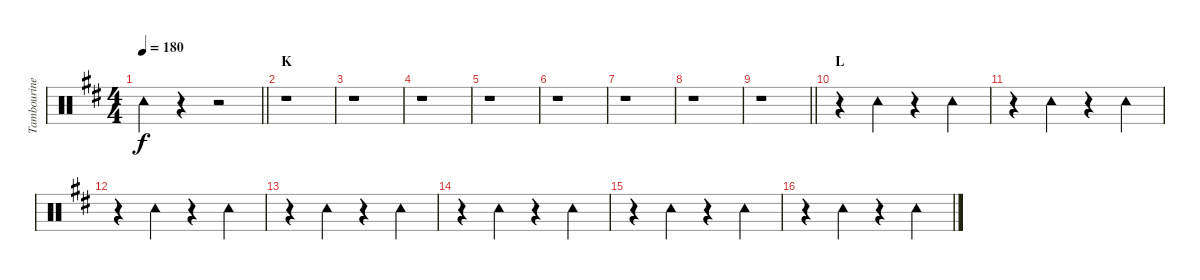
\track ("Tambourine" "Tambourine") {instrument percussion}
\staff {score}
\articulation defaults
\ts (4 4)
\tempo 180
\clef neutral
\barLineRight lightlight
\ks d "Tambourine (hit)".4{dy f}
r.4 r.2 |
\section ("" "K")
r.1 |
r.1 |
r.1 |
r.1 |
r.1 |
r.1 |
r.1 |
\barLineRight lightlight
r.1 |
\section ("" "L")
r.4 "Tambourine (hit)".4 r.4 "Tambourine (hit)".4 |
r.4 "Tambourine (hit)".4 r.4 "Tambourine (hit)".4 |
r.4 "Tambourine (hit)".4 r.4 "Tambourine (hit)".4 |
r.4 "Tambourine (hit)".4 r.4 "Tambourine (hit)".4 |
r.4 "Tambourine (hit)".4 r.4 "Tambourine (hit)".4 |
r.4 "Tambourine (hit)".4 r.4 "Tambourine (hit)".4 |
r.4 "Tambourine (hit)".4 r.4 "Tambourine (hit)".4
